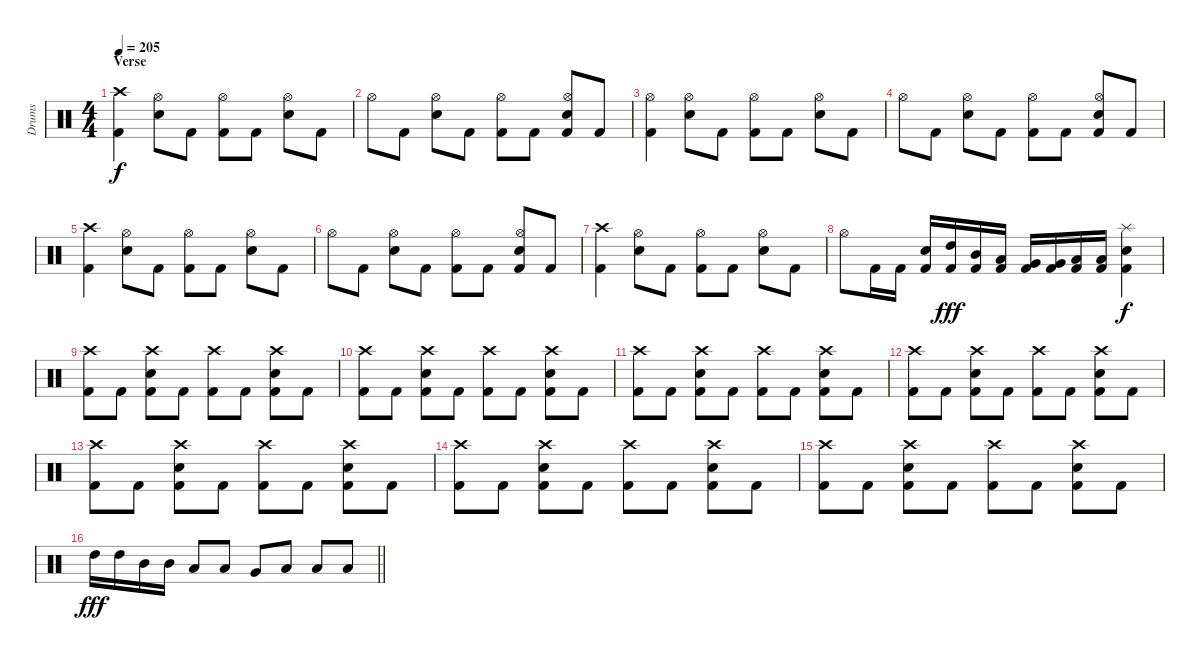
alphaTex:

\track ("Drums" "Drums") {instrument percussion}
\staff {score}
\articulation defaults
\ts (4 4)
\section ("" "Verse")
\tempo 205
\clef neutral
\ks c
("Crash high (hit)" "Kick (hit) 2").4{dy f} ("Hi-Hat (open)" "Snare (hit) 2").8 "Kick (hit) 2".8 ("Hi-Hat (open)" "Kick (hit) 2").8 "Kick (hit) 2".8 ("Hi-Hat (open)" "Snare (hit) 2").8 "Kick (hit) 2".8 |
"Hi-Hat (open)".8 "Kick (hit) 2".8 ("Hi-Hat (open)" "Snare (hit) 2").8 "Kick (hit) 2".8 ("Hi-Hat (open)" "Kick (hit) 2").8 "Kick (hit) 2".8 ("Hi-Hat (open)" "Snare (hit) 2" "Kick (hit) 2").8 "Kick (hit) 2".8 |
("Hi-Hat (open)" "Kick (hit) 2").4 ("Hi-Hat (open)" "Snare (hit) 2").8 "Kick (hit) 2".8 ("Hi-Hat (open)" "Kick (hit) 2").8 "Kick (hit) 2".8 ("Hi-Hat (open)" "Snare (hit) 2").8 "Kick (hit) 2".8 |
"Hi-Hat (open)".8 "Kick (hit) 2".8 ("Hi-Hat (open)" "Snare (hit) 2").8 "Kick (hit) 2".8 ("Hi-Hat (open)" "Kick (hit) 2").8 "Kick (hit) 2".8 ("Hi-Hat (open)" "Snare (hit) 2" "Kick (hit) 2").8 "Kick (hit) 2".8 |
("Crash high (hit)" "Kick (hit) 2").4 ("Hi-Hat (open)" "Snare (hit) 2").8 "Kick (hit) 2".8 ("Hi-Hat (open)" "Kick (hit) 2").8 "Kick (hit) 2".8 ("Hi-Hat (open)" "Snare (hit) 2").8 "Kick (hit) 2".8 |
"Hi-Hat (open)".8 "Kick (hit) 2".8 ("Hi-Hat (open)" "Snare (hit) 2").8 "Kick (hit) 2".8 ("Hi-Hat (open)" "Kick (hit) 2").8 "Kick (hit) 2".8 ("Hi-Hat (open)" "Snare (hit) 2" "Kick (hit) 2").8 "Kick (hit) 2".8 |
("Crash high (hit)" "Kick (hit) 2").4 ("Hi-Hat (open)" "Snare (hit) 2").8 "Kick (hit) 2".8 ("Hi-Hat (open)" "Kick (hit) 2").8 "Kick (hit) 2".8 ("Hi-Hat (open)" "Snare (hit) 2").8 "Kick (hit) 2".8 |
"Hi-Hat (open)".8 "Kick (hit) 2".16 "Kick (hit) 2".16 ("Snare (hit) 2" "Kick (hit) 2").16 ("High Tom (hit)" "Kick (hit) 2").16{dy fff} ("Mid Tom (hit)" "Kick (hit) 2").16 ("Low Tom (hit)" "Kick (hit) 2").16 ("Very Low Tom (hit)" "Kick (hit) 2").16 ("Very Low Tom (hit)" "Kick (hit) 2").16 ("Low Floor Tom (hit)" "Kick (hit) 2").16 ("Low Tom (hit)" "Kick (hit) 2").16 ("Splash (hit)" "Snare (hit) 2" "Kick (hit) 2").4{dy f} |
("Crash high (hit)" "Kick (hit) 2").8 "Kick (hit) 2".8 ("Crash high (hit)" "Snare (hit) 2" "Kick (hit) 2").8 "Kick (hit) 2".8 ("Crash high (hit)" "Kick (hit) 2").8 "Kick (hit) 2".8 ("Crash high (hit)" "Snare (hit) 2" "Kick (hit) 2").8 "Kick (hit) 2".8 |
("Crash high (hit)" "Kick (hit) 2").8 "Kick (hit) 2".8 ("Crash high (hit)" "Snare (hit) 2" "Kick (hit) 2").8 "Kick (hit) 2".8 ("Crash high (hit)" "Kick (hit) 2").8 "Kick (hit) 2".8 ("Crash high (hit)" "Snare (hit) 2" "Kick (hit) 2").8 "Kick (hit) 2".8 |
("Crash high (hit)" "Kick (hit) 2").8 "Kick (hit) 2".8 ("Crash high (hit)" "Snare (hit) 2" "Kick (hit) 2").8 "Kick (hit) 2".8 ("Crash high (hit)" "Kick (hit) 2").8 "Kick (hit) 2".8 ("Crash high (hit)" "Snare (hit) 2" "Kick (hit) 2").8 "Kick (hit) 2".8 |
("Crash high (hit)" "Kick (hit) 2").8 "Kick (hit) 2".8 ("Crash high (hit)" "Snare (hit) 2" "Kick (hit) 2").8 "Kick (hit) 2".8 ("Crash high (hit)" "Kick (hit) 2").8 "Kick (hit) 2".8 ("Crash high (hit)" "Snare (hit) 2" "Kick (hit) 2").8 "Kick (hit) 2".8 |
("Crash high (hit)" "Kick (hit) 2").8 "Kick (hit) 2".8 ("Crash high (hit)" "Snare (hit) 2" "Kick (hit) 2").8 "Kick (hit) 2".8 ("Crash high (hit)" "Kick (hit) 2").8 "Kick (hit) 2".8 ("Crash high (hit)" "Snare (hit) 2" "Kick (hit) 2").8 "Kick (hit) 2".8 |
("Crash high (hit)" "Kick (hit) 2").8 "Kick (hit) 2".8 ("Crash high (hit)" "Snare (hit) 2" "Kick (hit) 2").8 "Kick (hit) 2".8 ("Crash high (hit)" "Kick (hit) 2").8 "Kick (hit) 2".8 ("Crash high (hit)" "Snare (hit) 2" "Kick (hit) 2").8 "Kick (hit) 2".8 |
("Crash high (hit)" "Kick (hit) 2").8 "Kick (hit) 2".8 ("Crash high (hit)" "Snare (hit) 2" "Kick (hit) 2").8 "Kick (hit) 2".8 ("Crash high (hit)" "Kick (hit) 2").8 "Kick (hit) 2".8 ("Crash high (hit)" "Snare (hit) 2" "Kick (hit) 2").8 "Kick (hit) 2".8 |
\barLineRight lightlight "High Tom (hit)".16{dy fff} "High Tom (hit)".16 "Mid Tom (hit)".16 "Mid Tom (hit)".16 "Low Tom (hit)".8 "Low Tom (hit)".8 "Very Low Tom (hit)".8 "Low Floor Tom (hit)".8 "Low Floor Tom (hit)".8 "Low Floor Tom (hit)".8
